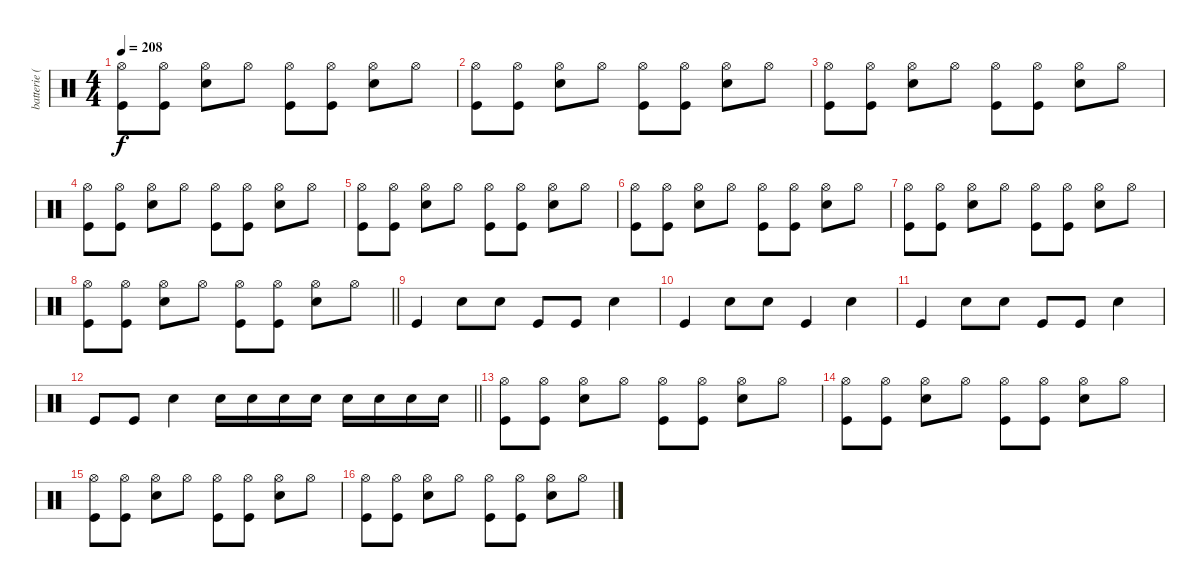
\track ("batterie ( Guillaume ) " "batterie (") {instrument percussion}
\staff {score}
\articulation defaults
\ts (4 4)
\tempo 208
\clef neutral
\ks c
("Hi-Hat (open)" "Kick (hit)").8{dy f} ("Hi-Hat (open)" "Kick (hit)").8 ("Hi-Hat (open)" "Electric Snare (hit)").8 "Hi-Hat (open)".8 ("Hi-Hat (open)" "Kick (hit)").8 ("Hi-Hat (open)" "Kick (hit)").8 ("Hi-Hat (open)" "Electric Snare (hit)").8 "Hi-Hat (open)".8 |
("Hi-Hat (open)" "Kick (hit)").8 ("Hi-Hat (open)" "Kick (hit)").8 ("Hi-Hat (open)" "Electric Snare (hit)").8 "Hi-Hat (open)".8 ("Hi-Hat (open)" "Kick (hit)").8 ("Hi-Hat (open)" "Kick (hit)").8 ("Hi-Hat (open)" "Electric Snare (hit)").8 "Hi-Hat (open)".8 |
("Hi-Hat (open)" "Kick (hit)").8 ("Hi-Hat (open)" "Kick (hit)").8 ("Hi-Hat (open)" "Electric Snare (hit)").8 "Hi-Hat (open)".8 ("Hi-Hat (open)" "Kick (hit)").8 ("Hi-Hat (open)" "Kick (hit)").8 ("Hi-Hat (open)" "Electric Snare (hit)").8 "Hi-Hat (open)".8 |
("Hi-Hat (open)" "Kick (hit)").8 ("Hi-Hat (open)" "Kick (hit)").8 ("Hi-Hat (open)" "Electric Snare (hit)").8 "Hi-Hat (open)".8 ("Hi-Hat (open)" "Kick (hit)").8 ("Hi-Hat (open)" "Kick (hit)").8 ("Hi-Hat (open)" "Electric Snare (hit)").8 "Hi-Hat (open)".8 |
("Hi-Hat (open)" "Kick (hit)").8 ("Hi-Hat (open)" "Kick (hit)").8 ("Hi-Hat (open)" "Electric Snare (hit)").8 "Hi-Hat (open)".8 ("Hi-Hat (open)" "Kick (hit)").8 ("Hi-Hat (open)" "Kick (hit)").8 ("Hi-Hat (open)" "Electric Snare (hit)").8 "Hi-Hat (open)".8 |
("Hi-Hat (open)" "Kick (hit)").8 ("Hi-Hat (open)" "Kick (hit)").8 ("Hi-Hat (open)" "Electric Snare (hit)").8 "Hi-Hat (open)".8 ("Hi-Hat (open)" "Kick (hit)").8 ("Hi-Hat (open)" "Kick (hit)").8 ("Hi-Hat (open)" "Electric Snare (hit)").8 "Hi-Hat (open)".8 |
("Hi-Hat (open)" "Kick (hit)").8 ("Hi-Hat (open)" "Kick (hit)").8 ("Hi-Hat (open)" "Electric Snare (hit)").8 "Hi-Hat (open)".8 ("Hi-Hat (open)" "Kick (hit)").8 ("Hi-Hat (open)" "Kick (hit)").8 ("Hi-Hat (open)" "Electric Snare (hit)").8 "Hi-Hat (open)".8 |
\barLineRight lightlight
("Hi-Hat (open)" "Kick (hit)").8 ("Hi-Hat (open)" "Kick (hit)").8 ("Hi-Hat (open)" "Electric Snare (hit)").8 "Hi-Hat (open)".8 ("Hi-Hat (open)" "Kick (hit)").8 ("Hi-Hat (open)" "Kick (hit)").8 ("Hi-Hat (open)" "Electric Snare (hit)").8 "Hi-Hat (open)".8 |
"Kick (hit)".4 "Electric Snare (hit)".8 "Electric Snare (hit)".8 "Kick (hit)".8 "Kick (hit)".8 "Electric Snare (hit)".4 |
"Kick (hit)".4 "Electric Snare (hit)".8 "Electric Snare (hit)".8 "Kick (hit)".4 "Electric Snare (hit)".4 |
"Kick (hit)".4 "Electric Snare (hit)".8 "Electric Snare (hit)".8 "Kick (hit)".8 "Kick (hit)".8 "Electric Snare (hit)".4 |
\barLineRight lightlight "Kick (hit)".8 "Kick (hit)".8 "Electric Snare (hit)".4 "Electric Snare (hit)".16 "Electric Snare (hit)".16 "Electric Snare (hit)".16 "Electric Snare (hit)".16 "Electric Snare (hit)".16 "Electric Snare (hit)".16 "Electric Snare (hit)".16 "Electric Snare (hit)".16
|
("Hi-Hat (open)" "Kick (hit)").8 ("Hi-Hat (open)" "Kick (hit)").8 ("Hi-Hat (open)" "Electric Snare (hit)").8 "Hi-Hat (open)".8 ("Hi-Hat (open)" "Kick (hit)").8 ("Hi-Hat (open)" "Kick (hit)").8 ("Hi-Hat (open)" "Electric Snare (hit)").8 "Hi-Hat (open)".8 |
("Hi-Hat (open)" "Kick (hit)").8 ("Hi-Hat (open)" "Kick (hit)").8 ("Hi-Hat (open)" "Electric Snare (hit)").8 "Hi-Hat (open)".8 ("Hi-Hat (open)" "Kick (hit)").8 ("Hi-Hat (open)" "Kick (hit)").8 ("Hi-Hat (open)" "Electric Snare (hit)").8 "Hi-Hat (open)".8 |
("Hi-Hat (open)" "Kick (hit)").8 ("Hi-Hat (open)" "Kick (hit)").8 ("Hi-Hat (open)" "Electric Snare (hit)").8 "Hi-Hat (open)".8 ("Hi-Hat (open)" "Kick (hit)").8 ("Hi-Hat (open)" "Kick (hit)").8 ("Hi-Hat (open)" "Electric Snare (hit)").8 "Hi-Hat (open)".8 |
("Hi-Hat (open)" "Kick (hit)").8 ("Hi-Hat (open)" "Kick (hit)").8 ("Hi-Hat (open)" "Electric Snare (hit)").8 "Hi-Hat (open)".8 ("Hi-Hat (open)" "Kick (hit)").8 ("Hi-Hat (open)" "Kick (hit)").8 ("Hi-Hat (open)" "Electric Snare (hit)").8 "Hi-Hat (open)".8
